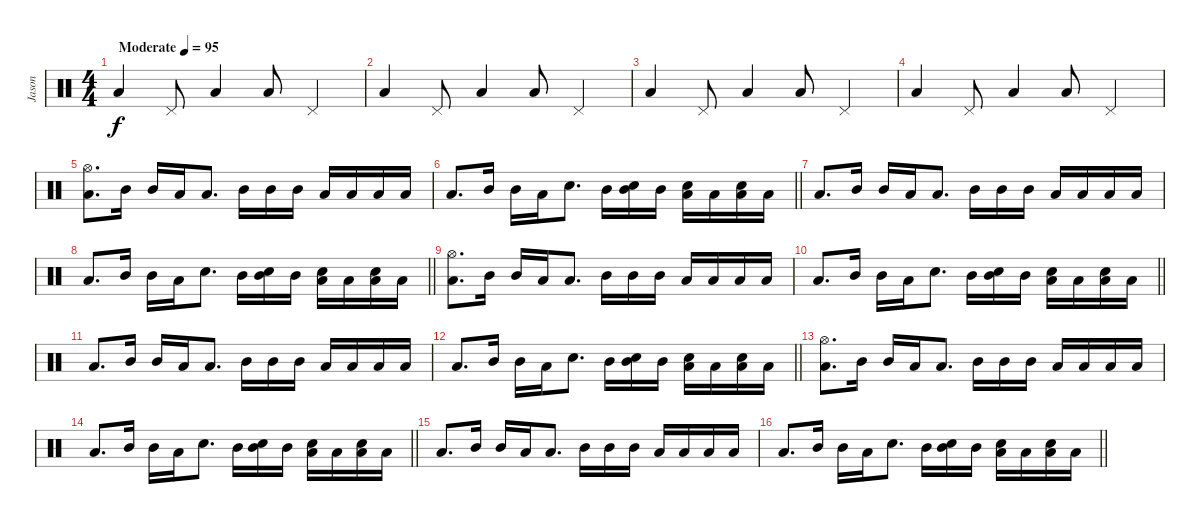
\track ("Jason" "Jason") {instrument percussion}
\staff {score}
\articulation defaults
\ts (4 4)
\tempo (95 "Moderate")
\clef neutral
\ks c "Low Floor Tom (hit)".4{dy f} "Pedal Hi-Hat (hit)".8 "Low Floor Tom (hit)".4 "Low Floor Tom (hit)".8 "Pedal Hi-Hat (hit)".4
|
"Low Floor Tom (hit)".4 "Pedal Hi-Hat (hit)".8 "Low Floor Tom (hit)".4 "Low Floor Tom (hit)".8 "Pedal Hi-Hat (hit)".4 |
"Low Floor Tom (hit)".4 "Pedal Hi-Hat (hit)".8 "Low Floor Tom (hit)".4 "Low Floor Tom (hit)".8 "Pedal Hi-Hat (hit)".4 |
"Low Floor Tom (hit)".4 "Pedal Hi-Hat (hit)".8 "Low Floor Tom (hit)".4 "Low Floor Tom (hit)".8 "Pedal Hi-Hat (hit)".4 |
("Hi-Hat (open)" "Low Floor Tom (hit)").8{d} "Mid Tom (hit)".16 "Mid Tom (hit)".16 "Low Tom (hit)".16 "Low Floor Tom (hit)".8{d} "Mid Tom (hit)".16 "Mid Tom (hit)".16 "Mid Tom (hit)".16 "Low Tom (hit)".16 "Low Tom (hit)".16 "Low Tom (hit)".16 "Low Tom (hit)".16 |
\barLineRight lightlight "Low Floor Tom (hit)".8{d} "Mid Tom (hit)".16 "Mid Tom (hit)".16 "Low Tom (hit)".16 "Electric Snare (hit)".8{d} "Mid Tom (hit)".16
("Mid Tom (hit)" "Electric Snare (hit)").16 "Mid Tom (hit)".16 ("Low Tom (hit)" "Electric Snare (hit)").16 "Low Tom (hit)".16 ("Low Tom (hit)" "Electric Snare (hit)").16 "Low Tom (hit)".16 |
"Low Floor Tom (hit)".8{d} "Mid Tom (hit)".16 "Mid Tom (hit)".16 "Low Tom (hit)".16 "Low Floor Tom (hit)".8{d} "Mid Tom (hit)".16 "Mid Tom (hit)".16 "Mid Tom (hit)".16 "Low Tom (hit)".16 "Low Tom (hit)".16 "Low Tom (hit)".16 "Low Tom (hit)".16 |
\barLineRight lightlight "Low Floor Tom (hit)".8{d} "Mid Tom (hit)".16 "Mid Tom (hit)".16 "Low Tom (hit)".16 "Electric Snare (hit)".8{d} "Mid Tom (hit)".16
("Mid Tom (hit)" "Electric Snare (hit)").16 "Mid Tom (hit)".16 ("Low Tom (hit)" "Electric Snare (hit)").16 "Low Tom (hit)".16 ("Low Tom (hit)" "Electric Snare (hit)").16 "Low Tom (hit)".16 |
("Hi-Hat (open)" "Low Floor Tom (hit)").8{d} "Mid Tom (hit)".16 "Mid Tom (hit)".16 "Low Tom (hit)".16 "Low Floor Tom (hit)".8{d} "Mid Tom (hit)".16 "Mid Tom (hit)".16 "Mid Tom (hit)".16 "Low Tom (hit)".16 "Low Tom (hit)".16 "Low Tom (hit)".16 "Low Tom (hit)".16 |
\barLineRight lightlight "Low Floor Tom (hit)".8{d} "Mid Tom (hit)".16 "Mid Tom (hit)".16 "Low Tom (hit)".16 "Electric Snare (hit)".8{d} "Mid Tom (hit)".16
("Mid Tom (hit)" "Electric Snare (hit)").16 "Mid Tom (hit)".16 ("Low Tom (hit)" "Electric Snare (hit)").16 "Low Tom (hit)".16 ("Low Tom (hit)" "Electric Snare (hit)").16 "Low Tom (hit)".16 |
"Low Floor Tom (hit)".8{d} "Mid Tom (hit)".16 "Mid Tom (hit)".16 "Low Tom (hit)".16 "Low Floor Tom (hit)".8{d} "Mid Tom (hit)".16 "Mid Tom (hit)".16 "Mid Tom (hit)".16 "Low Tom (hit)".16 "Low Tom (hit)".16 "Low Tom (hit)".16 "Low Tom (hit)".16 |
\barLineRight lightlight "Low Floor Tom (hit)".8{d} "Mid Tom (hit)".16 "Mid Tom (hit)".16 "Low Tom (hit)".16 "Electric Snare (hit)".8{d} "Mid Tom (hit)".16
("Mid Tom (hit)" "Electric Snare (hit)").16 "Mid Tom (hit)".16 ("Low Tom (hit)" "Electric Snare (hit)").16 "Low Tom (hit)".16 ("Low Tom (hit)" "Electric Snare (hit)").16 "Low Tom (hit)".16 |
("Hi-Hat (open)" "Low Floor Tom (hit)").8{d} "Mid Tom (hit)".16 "Mid Tom (hit)".16 "Low Tom (hit)".16 "Low Floor Tom (hit)".8{d} "Mid Tom (hit)".16 "Mid Tom (hit)".16 "Mid Tom (hit)".16 "Low Tom (hit)".16 "Low Tom (hit)".16 "Low Tom (hit)".16 "Low Tom (hit)".16 |
\barLineRight lightlight "Low Floor Tom (hit)".8{d} "Mid Tom (hit)".16 "Mid Tom (hit)".16 "Low Tom (hit)".16 "Electric Snare (hit)".8{d} "Mid Tom (hit)".16
("Mid Tom (hit)" "Electric Snare (hit)").16 "Mid Tom (hit)".16 ("Low Tom (hit)" "Electric Snare (hit)").16 "Low Tom (hit)".16 ("Low Tom (hit)" "Electric Snare (hit)").16 "Low Tom (hit)".16 |
"Low Floor Tom (hit)".8{d} "Mid Tom (hit)".16 "Mid Tom (hit)".16 "Low Tom (hit)".16 "Low Floor Tom (hit)".8{d} "Mid Tom (hit)".16 "Mid Tom (hit)".16 "Mid Tom (hit)".16 "Low Tom (hit)".16 "Low Tom (hit)".16 "Low Tom (hit)".16 "Low Tom (hit)".16 |
\barLineRight lightlight "Low Floor Tom (hit)".8{d} "Mid Tom (hit)".16 "Mid Tom (hit)".16 "Low Tom (hit)".16 "Electric Snare (hit)".8{d} "Mid Tom (hit)".16
("Mid Tom (hit)" "Electric Snare (hit)").16 "Mid Tom (hit)".16 ("Low Tom (hit)" "Electric Snare (hit)").16 "Low Tom (hit)".16 ("Low Tom (hit)" "Electric Snare (hit)").16 "Low Tom (hit)".16
